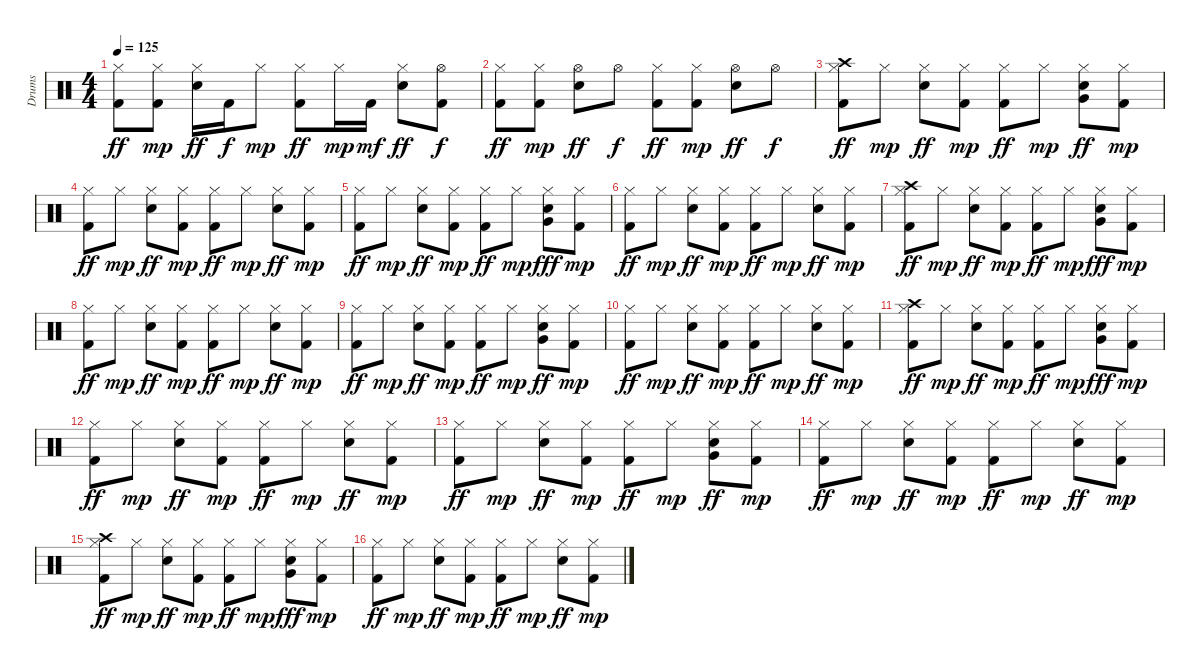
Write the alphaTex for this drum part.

\track ("Drums" "Drums") {instrument percussion}
\staff {score}
\articulation defaults
\ts (4 4)
\tempo 125
\clef neutral
\ks c
("Hi-Hat (closed)" "Kick (hit) 2").8{dy ff} ("Hi-Hat (closed)" "Kick (hit) 2").8{dy mp} ("Snare (hit) 2" "Hi-Hat (closed)").16{dy ff} "Kick (hit) 2".16{dy f} "Hi-Hat (closed)".8{dy mp} ("Hi-Hat (closed)" "Kick (hit) 2").8{dy ff} "Hi-Hat (closed)".16{dy mp} "Kick (hit) 2".16{dy mf} ("Snare (hit) 2" "Hi-Hat (closed)").8{dy ff} ("Kick (hit) 2" "Hi-Hat (open)").8{dy f} |
("Hi-Hat (closed)" "Kick (hit) 2").8{dy ff} ("Kick (hit) 2" "Hi-Hat (closed)").8{dy mp} ("Hi-Hat (open)" "Snare (hit) 2").8{dy ff} "Hi-Hat (open)".8{dy f} ("Kick (hit) 2" "Hi-Hat (closed)").8{dy ff} ("Kick (hit) 2" "Hi-Hat (closed)").8{dy mp} ("Hi-Hat (open)" "Snare (hit) 2").8{dy ff} "Hi-Hat (open)".8{dy f} |
("Kick (hit) 2" "Hi-Hat (closed)" "Crash high (hit)").8{dy ff} "Hi-Hat (closed)".8{dy mp} ("Hi-Hat (closed)" "Snare (hit) 2").8{dy ff} ("Kick (hit) 2" "Hi-Hat (closed)").8{dy mp} ("Hi-Hat (closed)" "Kick (hit) 2").8{dy ff} "Hi-Hat (closed)".8{dy mp} ("Very Low Tom (hit)" "Hi-Hat (closed)" "Snare (hit) 2").8{dy ff} ("Kick (hit) 2" "Hi-Hat (closed)").8{dy mp} |
("Kick (hit) 2" "Hi-Hat (closed)").8{dy ff} "Hi-Hat (closed)".8{dy mp} ("Hi-Hat (closed)" "Snare (hit) 2").8{dy ff} ("Kick (hit) 2" "Hi-Hat (closed)").8{dy mp} ("Hi-Hat (closed)" "Kick (hit) 2").8{dy ff} "Hi-Hat (closed)".8{dy mp} ("Hi-Hat (closed)" "Snare (hit) 2").8{dy ff} ("Hi-Hat (closed)" "Kick (hit) 2").8{dy mp} |
("Kick (hit) 2" "Hi-Hat (closed)").8{dy ff} "Hi-Hat (closed)".8{dy mp} ("Snare (hit) 2" "Hi-Hat (closed)").8{dy ff} ("Hi-Hat (closed)" "Kick (hit) 2").8{dy mp} ("Hi-Hat (closed)" "Kick (hit) 2").8{dy ff} "Hi-Hat (closed)".8{dy mp} ("Snare (hit) 2" "Hi-Hat (closed)" "Very Low Tom (hit)").8{dy fff} ("Hi-Hat (closed)" "Kick (hit) 2").8{dy mp} |
("Hi-Hat (closed)" "Kick (hit) 2").8{dy ff} "Hi-Hat (closed)".8{dy mp} ("Snare (hit) 2" "Hi-Hat (closed)").8{dy ff} ("Kick (hit) 2" "Hi-Hat (closed)").8{dy mp} ("Hi-Hat (closed)" "Kick (hit) 2").8{dy ff} "Hi-Hat (closed)".8{dy mp} ("Hi-Hat (closed)" "Snare (hit) 2").8{dy ff} ("Hi-Hat (closed)" "Kick (hit) 2").8{dy mp} |
("Hi-Hat (closed)" "Kick (hit) 2" "Crash high (hit)").8{dy ff} "Hi-Hat (closed)".8{dy mp} ("Snare (hit) 2" "Hi-Hat (closed)").8{dy ff} ("Kick (hit) 2" "Hi-Hat (closed)").8{dy mp} ("Hi-Hat (closed)" "Kick (hit) 2").8{dy ff} "Hi-Hat (closed)".8{dy mp} ("Hi-Hat (closed)" "Snare (hit) 2" "Very Low Tom (hit)").8{dy fff} ("Kick (hit) 2" "Hi-Hat (closed)").8{dy mp} |
("Kick (hit) 2" "Hi-Hat (closed)").8{dy ff} "Hi-Hat (closed)".8{dy mp} ("Snare (hit) 2" "Hi-Hat (closed)").8{dy ff} ("Hi-Hat (closed)" "Kick (hit) 2").8{dy mp} ("Hi-Hat (closed)" "Kick (hit) 2").8{dy ff} "Hi-Hat (closed)".8{dy mp} ("Snare (hit) 2" "Hi-Hat (closed)").8{dy ff} ("Kick (hit) 2" "Hi-Hat (closed)").8{dy mp} |
("Hi-Hat (closed)" "Kick (hit) 2").8{dy ff} "Hi-Hat (closed)".8{dy mp} ("Snare (hit) 2" "Hi-Hat (closed)").8{dy ff} ("Kick (hit) 2" "Hi-Hat (closed)").8{dy mp} ("Hi-Hat (closed)" "Kick (hit) 2").8{dy ff} "Hi-Hat (closed)".8{dy mp} ("Very Low Tom (hit)" "Snare (hit) 2" "Hi-Hat (closed)").8{dy ff} ("Kick (hit) 2" "Hi-Hat (closed)").8{dy mp} |
("Hi-Hat (closed)" "Kick (hit) 2").8{dy ff} "Hi-Hat (closed)".8{dy mp} ("Snare (hit) 2" "Hi-Hat (closed)").8{dy ff} ("Kick (hit) 2" "Hi-Hat (closed)").8{dy mp} ("Kick (hit) 2" "Hi-Hat (closed)").8{dy ff} "Hi-Hat (closed)".8{dy mp} ("Snare (hit) 2" "Hi-Hat (closed)").8{dy ff} ("Kick (hit) 2" "Hi-Hat (closed)").8{dy mp} |
("Hi-Hat (closed)" "Crash high (hit)" "Kick (hit) 2").8{dy ff} "Hi-Hat (closed)".8{dy mp} ("Hi-Hat (closed)" "Snare (hit) 2").8{dy ff} ("Kick (hit) 2" "Hi-Hat (closed)").8{dy mp} ("Hi-Hat (closed)" "Kick (hit) 2").8{dy ff} "Hi-Hat (closed)".8{dy mp} ("Snare (hit) 2" "Hi-Hat (closed)" "Very Low Tom (hit)").8{dy fff} ("Kick (hit) 2" "Hi-Hat (closed)").8{dy mp} |
("Kick (hit) 2" "Hi-Hat (closed)").8{dy ff} "Hi-Hat (closed)".8{dy mp} ("Snare (hit) 2" "Hi-Hat (closed)").8{dy ff} ("Hi-Hat (closed)" "Kick (hit) 2").8{dy mp} ("Hi-Hat (closed)" "Kick (hit) 2").8{dy ff} "Hi-Hat (closed)".8{dy mp} ("Hi-Hat (closed)" "Snare (hit) 2").8{dy ff} ("Kick (hit) 2" "Hi-Hat (closed)").8{dy mp} |
("Kick (hit) 2" "Hi-Hat (closed)").8{dy ff} "Hi-Hat (closed)".8{dy mp} ("Snare (hit) 2" "Hi-Hat (closed)").8{dy ff} ("Kick (hit) 2" "Hi-Hat (closed)").8{dy mp} ("Hi-Hat (closed)" "Kick (hit) 2").8{dy ff} "Hi-Hat (closed)".8{dy mp} ("Hi-Hat (closed)" "Very Low Tom (hit)" "Snare (hit) 2").8{dy ff} ("Hi-Hat (closed)" "Kick (hit) 2").8{dy mp} |
("Hi-Hat (closed)" "Kick (hit) 2").8{dy ff} "Hi-Hat (closed)".8{dy mp} ("Snare (hit) 2" "Hi-Hat (closed)").8{dy ff} ("Kick (hit) 2" "Hi-Hat (closed)").8{dy mp} ("Kick (hit) 2" "Hi-Hat (closed)").8{dy ff} "Hi-Hat (closed)".8{dy mp} ("Hi-Hat (closed)" "Snare (hit) 2").8{dy ff} ("Hi-Hat (closed)" "Kick (hit) 2").8{dy mp} |
("Hi-Hat (closed)" "Crash high (hit)" "Kick (hit) 2").8{dy ff} "Hi-Hat (closed)".8{dy mp} ("Hi-Hat (closed)" "Snare (hit) 2").8{dy ff} ("Kick (hit) 2" "Hi-Hat (closed)").8{dy mp} ("Kick (hit) 2" "Hi-Hat (closed)").8{dy ff} "Hi-Hat (closed)".8{dy mp} ("Snare (hit) 2" "Very Low Tom (hit)" "Hi-Hat (closed)").8{dy fff} ("Kick (hit) 2" "Hi-Hat (closed)").8{dy mp} |
("Kick (hit) 2" "Hi-Hat (closed)").8{dy ff} "Hi-Hat (closed)".8{dy mp} ("Hi-Hat (closed)" "Snare (hit) 2").8{dy ff} ("Kick (hit) 2" "Hi-Hat (closed)").8{dy mp} ("Hi-Hat (closed)" "Kick (hit) 2").8{dy ff} "Hi-Hat (closed)".8{dy mp} ("Hi-Hat (closed)" "Snare (hit) 2").8{dy ff} ("Kick (hit) 2" "Hi-Hat (closed)").8{dy mp}
